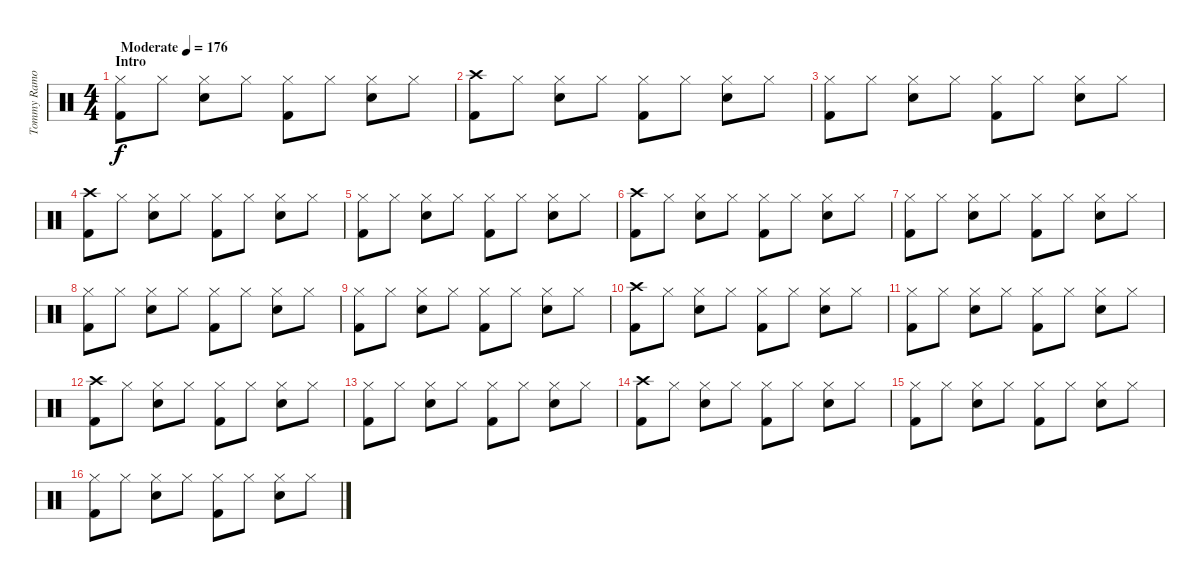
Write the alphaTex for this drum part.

\track ("Tommy Ramone" "Tommy Ramo") {instrument percussion}
\staff {score}
\articulation defaults
\ts (4 4)
\section ("" "Intro")
\tempo (176 "Moderate")
\clef neutral
\ks c
("Hi-Hat (closed)" "Kick (hit) 2").8{dy f} "Hi-Hat (closed)".8 ("Hi-Hat (closed)" "Snare (hit) 2").8 "Hi-Hat (closed)".8 ("Hi-Hat (closed)" "Kick (hit) 2").8 "Hi-Hat (closed)".8 ("Hi-Hat (closed)" "Snare (hit) 2").8 "Hi-Hat (closed)".8 |
("Crash high (hit)" "Kick (hit) 2").8 "Hi-Hat (closed)".8 ("Hi-Hat (closed)" "Snare (hit) 2").8 "Hi-Hat (closed)".8 ("Hi-Hat (closed)" "Kick (hit) 2").8 "Hi-Hat (closed)".8 ("Hi-Hat (closed)" "Snare (hit) 2").8 "Hi-Hat (closed)".8 |
("Hi-Hat (closed)" "Kick (hit) 2").8 "Hi-Hat (closed)".8 ("Hi-Hat (closed)" "Snare (hit) 2").8 "Hi-Hat (closed)".8 ("Hi-Hat (closed)" "Kick (hit) 2").8 "Hi-Hat (closed)".8 ("Hi-Hat (closed)" "Snare (hit) 2").8 "Hi-Hat (closed)".8 |
("Crash high (hit)" "Kick (hit) 2").8 "Hi-Hat (closed)".8 ("Hi-Hat (closed)" "Snare (hit) 2").8 "Hi-Hat (closed)".8 ("Hi-Hat (closed)" "Kick (hit) 2").8 "Hi-Hat (closed)".8 ("Hi-Hat (closed)" "Snare (hit) 2").8 "Hi-Hat (closed)".8 |
("Hi-Hat (closed)" "Kick (hit) 2").8 "Hi-Hat (closed)".8 ("Hi-Hat (closed)" "Snare (hit) 2").8 "Hi-Hat (closed)".8 ("Hi-Hat (closed)" "Kick (hit) 2").8 "Hi-Hat (closed)".8 ("Hi-Hat (closed)" "Snare (hit) 2").8 "Hi-Hat (closed)".8 |
("Crash high (hit)" "Kick (hit) 2").8 "Hi-Hat (closed)".8 ("Hi-Hat (closed)" "Snare (hit) 2").8 "Hi-Hat (closed)".8 ("Hi-Hat (closed)" "Kick (hit) 2").8 "Hi-Hat (closed)".8 ("Hi-Hat (closed)" "Snare (hit) 2").8 "Hi-Hat (closed)".8 |
("Hi-Hat (closed)" "Kick (hit) 2").8 "Hi-Hat (closed)".8 ("Hi-Hat (closed)" "Snare (hit) 2").8 "Hi-Hat (closed)".8 ("Hi-Hat (closed)" "Kick (hit) 2").8 "Hi-Hat (closed)".8 ("Hi-Hat (closed)" "Snare (hit) 2").8 "Hi-Hat (closed)".8 |
("Hi-Hat (closed)" "Kick (hit) 2").8 "Hi-Hat (closed)".8 ("Hi-Hat (closed)" "Snare (hit) 2").8 "Hi-Hat (closed)".8 ("Hi-Hat (closed)" "Kick (hit) 2").8 "Hi-Hat (closed)".8 ("Hi-Hat (closed)" "Snare (hit) 2").8 "Hi-Hat (closed)".8 |
("Hi-Hat (closed)" "Kick (hit) 2").8 "Hi-Hat (closed)".8 ("Hi-Hat (closed)" "Snare (hit) 2").8 "Hi-Hat (closed)".8 ("Hi-Hat (closed)" "Kick (hit) 2").8 "Hi-Hat (closed)".8 ("Hi-Hat (closed)" "Snare (hit) 2").8 "Hi-Hat (closed)".8 |
("Crash high (hit)" "Kick (hit) 2").8 "Hi-Hat (closed)".8 ("Hi-Hat (closed)" "Snare (hit) 2").8 "Hi-Hat (closed)".8 ("Hi-Hat (closed)" "Kick (hit) 2").8 "Hi-Hat (closed)".8 ("Hi-Hat (closed)" "Snare (hit) 2").8 "Hi-Hat (closed)".8 |
("Hi-Hat (closed)" "Kick (hit) 2").8 "Hi-Hat (closed)".8 ("Hi-Hat (closed)" "Snare (hit) 2").8 "Hi-Hat (closed)".8 ("Hi-Hat (closed)" "Kick (hit) 2").8 "Hi-Hat (closed)".8 ("Hi-Hat (closed)" "Snare (hit) 2").8 "Hi-Hat (closed)".8 |
("Crash high (hit)" "Kick (hit) 2").8 "Hi-Hat (closed)".8 ("Hi-Hat (closed)" "Snare (hit) 2").8 "Hi-Hat (closed)".8 ("Hi-Hat (closed)" "Kick (hit) 2").8 "Hi-Hat (closed)".8 ("Hi-Hat (closed)" "Snare (hit) 2").8 "Hi-Hat (closed)".8 |
("Hi-Hat (closed)" "Kick (hit) 2").8 "Hi-Hat (closed)".8 ("Hi-Hat (closed)" "Snare (hit) 2").8 "Hi-Hat (closed)".8 ("Hi-Hat (closed)" "Kick (hit) 2").8 "Hi-Hat (closed)".8 ("Hi-Hat (closed)" "Snare (hit) 2").8 "Hi-Hat (closed)".8 |
("Crash high (hit)" "Kick (hit) 2").8 "Hi-Hat (closed)".8 ("Hi-Hat (closed)" "Snare (hit) 2").8 "Hi-Hat (closed)".8 ("Hi-Hat (closed)" "Kick (hit) 2").8 "Hi-Hat (closed)".8 ("Hi-Hat (closed)" "Snare (hit) 2").8 "Hi-Hat (closed)".8 |
("Hi-Hat (closed)" "Kick (hit) 2").8 "Hi-Hat (closed)".8 ("Hi-Hat (closed)" "Snare (hit) 2").8 "Hi-Hat (closed)".8 ("Hi-Hat (closed)" "Kick (hit) 2").8 "Hi-Hat (closed)".8 ("Hi-Hat (closed)" "Snare (hit) 2").8 "Hi-Hat (closed)".8 |
("Hi-Hat (closed)" "Kick (hit) 2").8 "Hi-Hat (closed)".8 ("Hi-Hat (closed)" "Snare (hit) 2").8 "Hi-Hat (closed)".8 ("Hi-Hat (closed)" "Kick (hit) 2").8 "Hi-Hat (closed)".8 ("Hi-Hat (closed)" "Snare (hit) 2").8 "Hi-Hat (closed)".8
